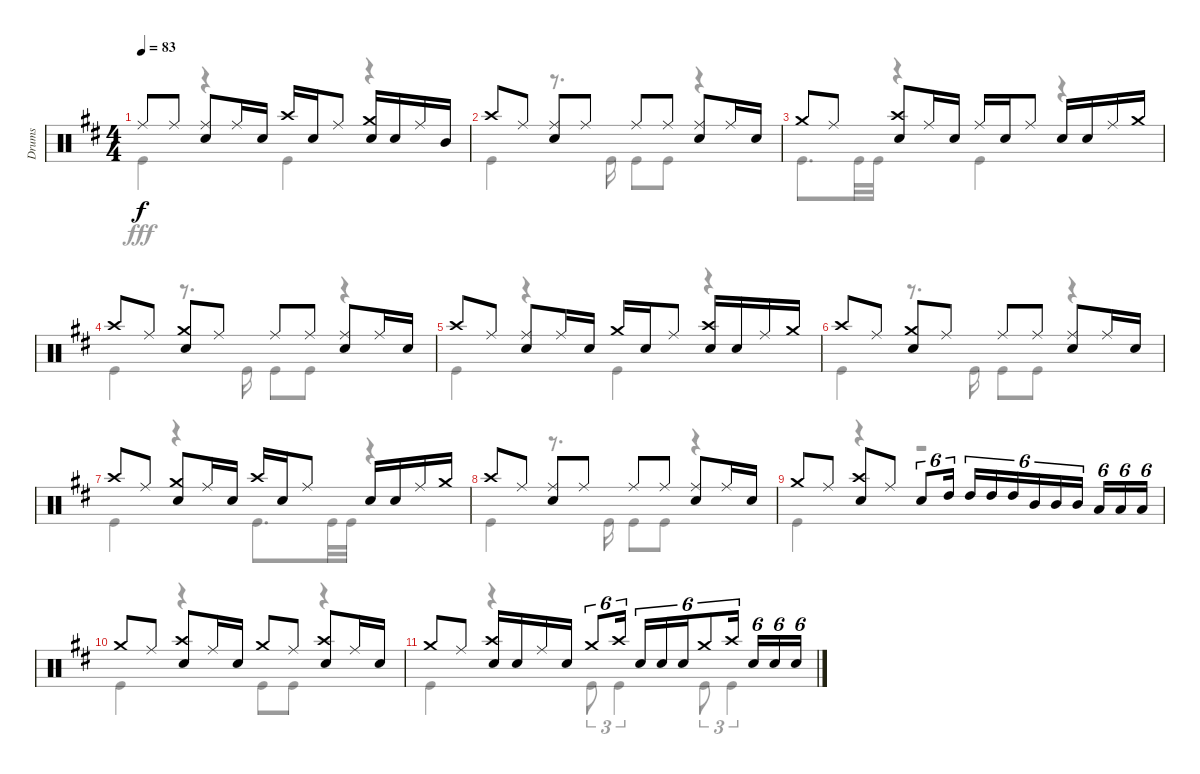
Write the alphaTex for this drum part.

\track ("Drums" "Drums") {instrument percussion}
\staff {score}
\articulation defaults
\voice
\ts (4 4)
\tempo 83
\clef neutral
\ks d "Ride (middle)".8{dy f} "Ride (middle)".8
("Ride (middle)" "Snare (hit) 2").8 "Ride (middle)".16 "Snare (hit) 2".16 "Crash high (hit)".16 "Snare (hit) 2".16 "Ride (middle)".8 ("Crash medium (hit)" "Snare (hit) 2").16 "Snare (hit) 2".16 "Ride (middle)".16 "Mid Tom (hit)".16 |
"Crash high (hit)".8 "Ride (middle)".8 ("Ride (middle)" "Snare (hit) 2").8 "Ride (middle)".8 "Ride (middle)".8 "Ride (middle)".8 ("Ride (middle)" "Snare (hit) 2").8 "Ride (middle)".16 "Snare (hit) 2".16 |
"Crash medium (hit)".8 "Ride (middle)".8 ("Crash high (hit)" "Snare (hit) 2").8 "Ride (middle)".16 "Snare (hit) 2".16 "Ride (middle)".16 "Snare (hit) 2".16 "Ride (middle)".8 "Snare (hit) 2".16 "Snare (hit) 2".16 "Ride (middle)".16 "Crash medium (hit)".16 |
"Crash high (hit)".8 "Ride (middle)".8 ("Crash medium (hit)" "Snare (hit) 2").8 "Ride (middle)".8 "Ride (middle)".8 "Ride (middle)".8 ("Ride (middle)" "Snare (hit) 2").8 "Ride (middle)".16 "Snare (hit) 2".16 |
"Crash high (hit)".8 "Ride (middle)".8 ("Ride (middle)" "Snare (hit) 2").8 "Ride (middle)".16 "Snare (hit) 2".16 "Crash medium (hit)".16 "Snare (hit) 2".16 "Ride (middle)".8 ("Crash high (hit)" "Snare (hit) 2").16 "Snare (hit) 2".16 "Ride (middle)".16 "Crash medium (hit)".16 |
"Crash high (hit)".8 "Ride (middle)".8 ("Crash medium (hit)" "Snare (hit) 2").8 "Ride (middle)".8 "Ride (middle)".8 "Ride (middle)".8 ("Ride (middle)" "Snare (hit) 2").8 "Ride (middle)".16 "Snare (hit) 2".16 |
"Crash high (hit)".8 "Ride (middle)".8 ("Crash medium (hit)" "Snare (hit) 2").8 "Ride (middle)".16 "Snare (hit) 2".16 "Crash high (hit)".16 "Snare (hit) 2".16 "Ride (middle)".8 "Snare (hit) 2".16 "Snare (hit) 2".16 "Ride (middle)".16 "Crash medium (hit)".16 |
"Crash high (hit)".8 "Ride (middle)".8 ("Ride (middle)" "Snare (hit) 2").8 "Ride (middle)".8 "Ride (middle)".8 "Ride (middle)".8 ("Ride (middle)" "Snare (hit) 2").8 "Ride (middle)".16 "Snare (hit) 2".16 |
"Crash medium (hit)".8 "Ride (middle)".8 ("Crash high (hit)" "Snare (hit) 2").8 "Ride (middle)".8 "Snare (hit) 2".8{tu (6 4)} "High Tom (hit)".16{tu (6 4) beam splitsecondary} "High Tom (hit)".16{tu (6 4)} "High Tom (hit)".16{tu (6 4)} "High Tom (hit)".16{tu (6 4)} "Mid Tom (hit)".16{tu (6 4)} "Mid Tom (hit)".16{tu (6 4)} "Mid Tom (hit)".16{tu (6 4) beam splitsecondary} "Low Tom (hit)".16{tu (6 4)} "Low Tom (hit)".16{tu (6 4)} "Low Tom (hit)".16{tu (6 4)} |
"Crash medium (hit)".8 "Ride (middle)".8 ("Crash high (hit)" "Snare (hit) 2").8 "Ride (middle)".16 "Snare (hit) 2".16 "Crash medium (hit)".8 "Ride (middle)".8 ("Crash high (hit)" "Snare (hit) 2").8 "Ride (middle)".16 "Snare (hit) 2".16 |
"Crash medium (hit)".8 "Ride (middle)".8 ("Crash high (hit)" "Snare (hit) 2").16 "Snare (hit) 2".16 "Ride (middle)".16 "Snare (hit) 2".16 "Crash medium (hit)".8{tu (6 4)} "Crash high (hit)".16{tu (6 4) beam splitsecondary} "Snare (hit) 2".16{tu (6 4)} "Snare (hit) 2".16{tu (6 4)} "Snare (hit) 2".16{tu (6 4)} "Crash medium (hit)".8{tu (6 4)} "Crash high (hit)".16{tu (6 4) beam splitsecondary} "Snare (hit) 2".16{tu (6 4)} "Snare (hit) 2".16{tu (6 4)} "Snare (hit) 2".16{tu (6 4)}
\voice
\clef neutral
\ottava regular
\simile none
\ks d "Kick (hit)".4{dy fff}
r.4 "Kick (hit)".4 r.4 |
"Kick (hit)".4 r.8{d} "Kick (hit)".16 "Kick (hit)".8 "Kick (hit)".8 r.4 |
"Kick (hit)".8{d} "Kick (hit)".32 "Kick (hit)".32 r.4 "Kick (hit)".4 r.4 |
"Kick (hit)".4 r.8{d} "Kick (hit)".16 "Kick (hit)".8 "Kick (hit)".8 r.4 |
"Kick (hit)".4 r.4 "Kick (hit)".4 r.4 |
"Kick (hit)".4 r.8{d} "Kick (hit)".16 "Kick (hit)".8 "Kick (hit)".8 r.4 |
"Kick (hit)".4 r.4 "Kick (hit)".8{d} "Kick (hit)".32 "Kick (hit)".32 r.4 |
"Kick (hit)".4 r.8{d} "Kick (hit)".16 "Kick (hit)".8 "Kick (hit)".8 r.4 |
"Kick (hit)".4 r.4 r.2 |
"Kick (hit)".4 r.4 "Kick (hit)".8 "Kick (hit)".8 r.4 |
"Kick (hit)".4 r.4 "Kick (hit)".8{tu (3 2)} "Kick (hit)".4{tu (3 2)} "Kick (hit)".8{tu (3 2)} "Kick (hit)".4{tu (3 2)}
